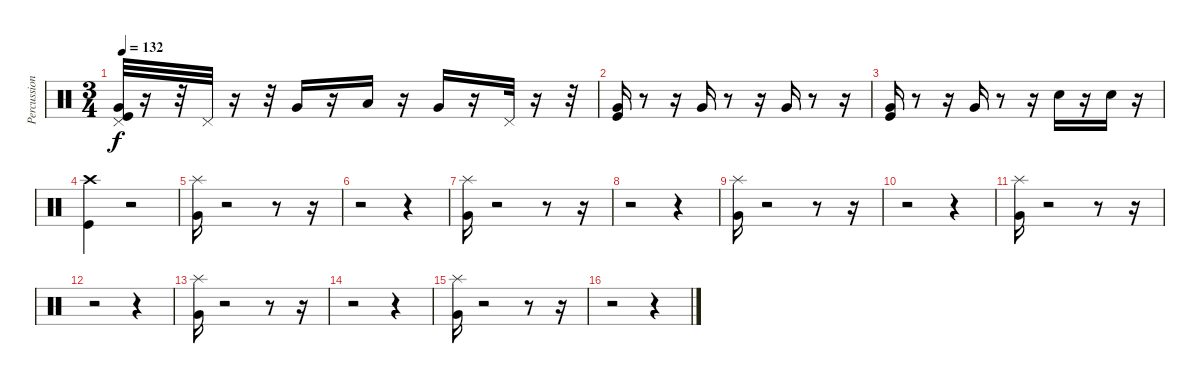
\track ("Percussion" "Percussion") {instrument percussion}
\staff {score}
\articulation defaults
\ts (3 4)
\tempo 132
\clef neutral
\ks c
("Pedal Hi-Hat (hit)" "Kick (hit)" "Very Low Tom (hit)").32{dy f} r.16 r.32 "Pedal Hi-Hat (hit)".32 r.16 r.32 "Very Low Tom (hit)".16 r.16 "Low Tom (hit)".16 r.16 "Very Low Tom (hit)".16 r.16 "Pedal Hi-Hat (hit)".32 r.16 r.32 |
("Very Low Tom (hit)" "Kick (hit)").16 r.8 r.16 "Very Low Tom (hit)".16 r.8 r.16 "Very Low Tom (hit)".16 r.8 r.16 |
("Kick (hit)" "Very Low Tom (hit)").16 r.8 r.16 "Very Low Tom (hit)".16 r.8 r.16 "Snare (hit) 2".16 r.16 "Snare (hit) 2".16 r.16 |
("Kick (hit)" "Crash high (hit)").4 r.2 |
("Splash (hit)" "Very Low Tom (hit)").16 r.2 r.8 r.16 |
r.2 r.4 |
("Very Low Tom (hit)" "Splash (hit)").16 r.2 r.8 r.16 |
r.2 r.4 |
("Very Low Tom (hit)" "Splash (hit)").16 r.2 r.8 r.16 |
r.2 r.4 |
("Very Low Tom (hit)" "Splash (hit)").16 r.2 r.8 r.16 |
r.2 r.4 |
("Very Low Tom (hit)" "Splash (hit)").16 r.2 r.8 r.16 |
r.2 r.4 |
("Very Low Tom (hit)" "Splash (hit)").16 r.2 r.8 r.16 |
r.2 r.4
